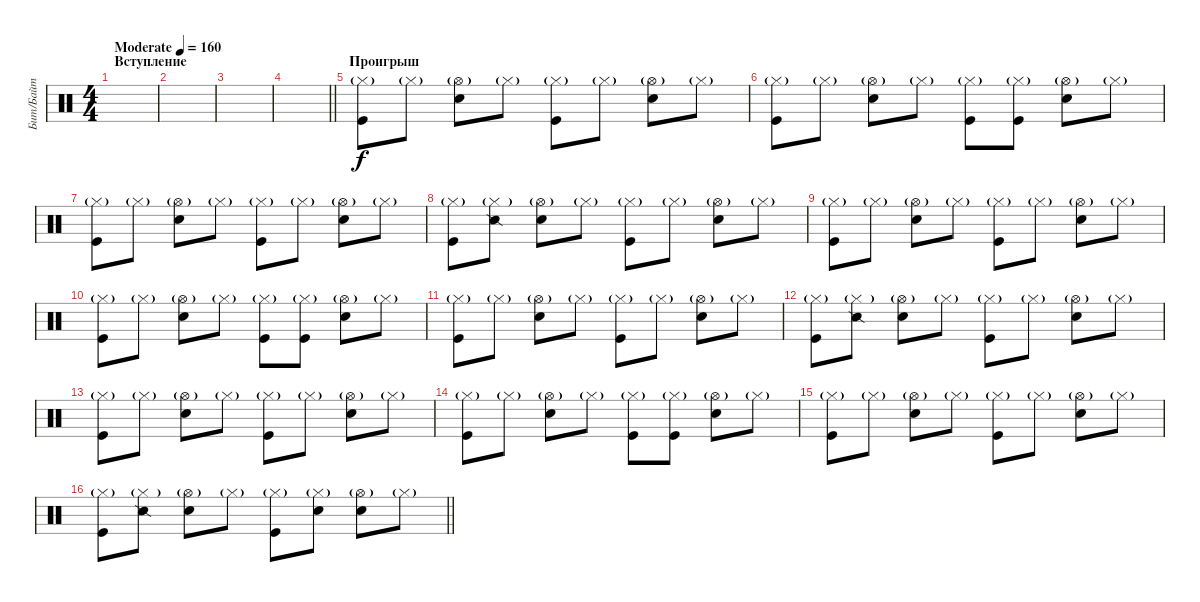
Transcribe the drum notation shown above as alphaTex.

\track ("Бит/Байт" "Бит/Байт") {instrument percussion}
\staff {score}
\articulation defaults
\ts (4 4)
\section ("" "Вступление")
\tempo (160 "Moderate")
\clef neutral
\ks c
|
|
|
\barLineRight lightlight
|
\section ("" "Проигрыш")
("Hi-Hat (closed)"{g} "Kick (hit)").8 "Hi-Hat (closed)"{g}.8 ("Hi-Hat (open)"{g} "Snare (hit) 2").8 "Hi-Hat (closed)"{g}.8 ("Hi-Hat (closed)"{g} "Kick (hit)").8 "Hi-Hat (closed)"{g}.8 ("Hi-Hat (open)"{g} "Snare (hit) 2").8 "Hi-Hat (closed)"{g}.8 |
("Hi-Hat (closed)"{g} "Kick (hit)").8 "Hi-Hat (closed)"{g}.8 ("Hi-Hat (open)"{g} "Snare (hit) 2").8 "Hi-Hat (closed)"{g}.8 ("Hi-Hat (closed)"{g} "Kick (hit)").8 ("Hi-Hat (closed)"{g} "Kick (hit)").8 ("Hi-Hat (open)"{g} "Snare (hit) 2").8 "Hi-Hat (closed)"{g}.8 |
("Hi-Hat (closed)"{g} "Kick (hit)").8 "Hi-Hat (closed)"{g}.8 ("Hi-Hat (open)"{g} "Snare (hit) 2").8 "Hi-Hat (closed)"{g}.8 ("Hi-Hat (closed)"{g} "Kick (hit)").8 "Hi-Hat (closed)"{g}.8 ("Hi-Hat (open)"{g} "Snare (hit) 2").8 "Hi-Hat (closed)"{g}.8 |
("Hi-Hat (closed)"{g} "Kick (hit)").8 ("Hi-Hat (closed)"{g} "Snare (side stick) 2").8 ("Hi-Hat (open)"{g} "Snare (hit) 2").8 "Hi-Hat (closed)"{g}.8 ("Hi-Hat (closed)"{g} "Kick (hit)").8 "Hi-Hat (closed)"{g}.8 ("Hi-Hat (open)"{g} "Snare (hit) 2").8 "Hi-Hat (closed)"{g}.8 |
("Hi-Hat (closed)"{g} "Kick (hit)").8 "Hi-Hat (closed)"{g}.8 ("Hi-Hat (open)"{g} "Snare (hit) 2").8 "Hi-Hat (closed)"{g}.8 ("Hi-Hat (closed)"{g} "Kick (hit)").8 "Hi-Hat (closed)"{g}.8 ("Hi-Hat (open)"{g} "Snare (hit) 2").8 "Hi-Hat (closed)"{g}.8 |
("Hi-Hat (closed)"{g} "Kick (hit)").8 "Hi-Hat (closed)"{g}.8 ("Hi-Hat (open)"{g} "Snare (hit) 2").8 "Hi-Hat (closed)"{g}.8 ("Hi-Hat (closed)"{g} "Kick (hit)").8 ("Hi-Hat (closed)"{g} "Kick (hit)").8 ("Hi-Hat (open)"{g} "Snare (hit) 2").8 "Hi-Hat (closed)"{g}.8 |
("Hi-Hat (closed)"{g} "Kick (hit)").8 "Hi-Hat (closed)"{g}.8 ("Hi-Hat (open)"{g} "Snare (hit) 2").8 "Hi-Hat (closed)"{g}.8 ("Hi-Hat (closed)"{g} "Kick (hit)").8 "Hi-Hat (closed)"{g}.8 ("Hi-Hat (open)"{g} "Snare (hit) 2").8 "Hi-Hat (closed)"{g}.8 |
("Hi-Hat (closed)"{g} "Kick (hit)").8 ("Hi-Hat (closed)"{g} "Snare (side stick) 2").8 ("Hi-Hat (open)"{g} "Snare (hit) 2").8 "Hi-Hat (closed)"{g}.8 ("Hi-Hat (closed)"{g} "Kick (hit)").8 "Hi-Hat (closed)"{g}.8 ("Hi-Hat (open)"{g} "Snare (hit) 2").8 "Hi-Hat (closed)"{g}.8 |
("Hi-Hat (closed)"{g} "Kick (hit)").8 "Hi-Hat (closed)"{g}.8 ("Hi-Hat (open)"{g} "Snare (hit) 2").8 "Hi-Hat (closed)"{g}.8 ("Hi-Hat (closed)"{g} "Kick (hit)").8 "Hi-Hat (closed)"{g}.8 ("Hi-Hat (open)"{g} "Snare (hit) 2").8 "Hi-Hat (closed)"{g}.8 |
("Hi-Hat (closed)"{g} "Kick (hit)").8 "Hi-Hat (closed)"{g}.8 ("Hi-Hat (open)"{g} "Snare (hit) 2").8 "Hi-Hat (closed)"{g}.8 ("Hi-Hat (closed)"{g} "Kick (hit)").8 ("Hi-Hat (closed)"{g} "Kick (hit)").8 ("Hi-Hat (open)"{g} "Snare (hit) 2").8 "Hi-Hat (closed)"{g}.8 |
("Hi-Hat (closed)"{g} "Kick (hit)").8 "Hi-Hat (closed)"{g}.8 ("Hi-Hat (open)"{g} "Snare (hit) 2").8 "Hi-Hat (closed)"{g}.8 ("Hi-Hat (closed)"{g} "Kick (hit)").8 "Hi-Hat (closed)"{g}.8 ("Hi-Hat (open)"{g} "Snare (hit) 2").8 "Hi-Hat (closed)"{g}.8 |
\barLineRight lightlight
("Hi-Hat (closed)"{g} "Kick (hit)").8 ("Hi-Hat (closed)"{g} "Snare (side stick) 2").8 ("Hi-Hat (open)"{g} "Snare (hit) 2").8 "Hi-Hat (closed)"{g}.8 ("Hi-Hat (closed)"{g} "Kick (hit)").8 ("Hi-Hat (closed)"{g} "Snare (hit) 2").8 ("Hi-Hat (open)"{g} "Snare (hit) 2").8 "Hi-Hat (closed)"{g}.8
